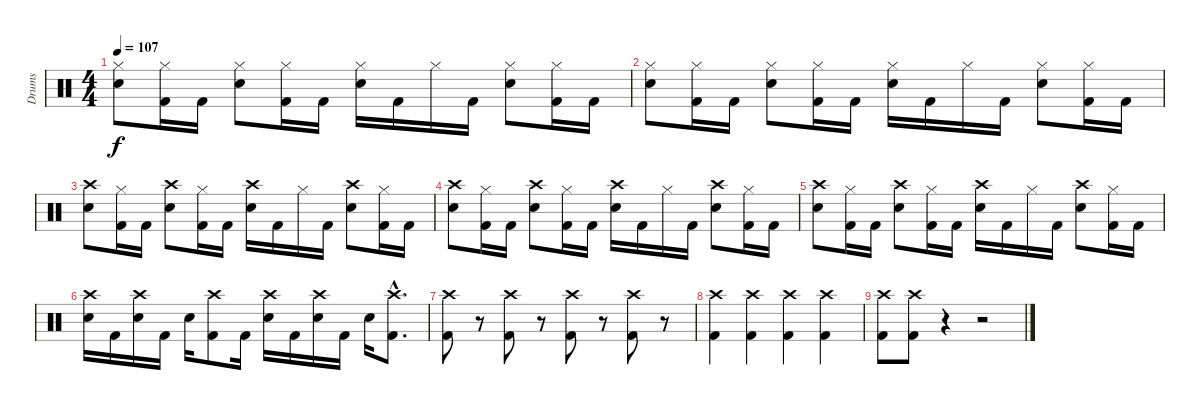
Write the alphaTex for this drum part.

\track ("Drums" "Drums") {instrument percussion}
\staff {score}
\articulation defaults
\ts (4 4)
\tempo 107
\clef neutral
\ks c
("Hi-Hat (closed)" "Electric Snare (hit)").8{dy f} ("Hi-Hat (closed)" "Kick (hit) 2").16 "Kick (hit) 2".16 ("Hi-Hat (closed)" "Electric Snare (hit)").8 ("Hi-Hat (closed)" "Kick (hit) 2").16 "Kick (hit) 2".16 ("Hi-Hat (closed)" "Electric Snare (hit)").16 "Kick (hit) 2".16 "Hi-Hat (closed)".16 "Kick (hit) 2".16 ("Hi-Hat (closed)" "Electric Snare (hit)").8 ("Hi-Hat (closed)" "Kick (hit) 2").16 "Kick (hit) 2".16 |
("Hi-Hat (closed)" "Electric Snare (hit)").8 ("Hi-Hat (closed)" "Kick (hit) 2").16 "Kick (hit) 2".16 ("Hi-Hat (closed)" "Electric Snare (hit)").8 ("Hi-Hat (closed)" "Kick (hit) 2").16 "Kick (hit) 2".16 ("Hi-Hat (closed)" "Electric Snare (hit)").16 "Kick (hit) 2".16 "Hi-Hat (closed)".16 "Kick (hit) 2".16 ("Hi-Hat (closed)" "Electric Snare (hit)").8 ("Hi-Hat (closed)" "Kick (hit) 2").16 "Kick (hit) 2".16 |
("Crash high (hit)" "Electric Snare (hit)").8 ("Hi-Hat (closed)" "Kick (hit) 2").16 "Kick (hit) 2".16 ("Crash high (hit)" "Electric Snare (hit)").8 ("Hi-Hat (closed)" "Kick (hit) 2").16 "Kick (hit) 2".16 ("Crash high (hit)" "Electric Snare (hit)").16 "Kick (hit) 2".16 "Hi-Hat (closed)".16 "Kick (hit) 2".16 ("Crash high (hit)" "Electric Snare (hit)").8 ("Hi-Hat (closed)" "Kick (hit) 2").16 "Kick (hit) 2".16 |
("Crash high (hit)" "Electric Snare (hit)").8 ("Hi-Hat (closed)" "Kick (hit) 2").16 "Kick (hit) 2".16 ("Crash high (hit)" "Electric Snare (hit)").8 ("Hi-Hat (closed)" "Kick (hit) 2").16 "Kick (hit) 2".16 ("Crash high (hit)" "Electric Snare (hit)").16 "Kick (hit) 2".16 "Hi-Hat (closed)".16 "Kick (hit) 2".16 ("Crash high (hit)" "Electric Snare (hit)").8 ("Hi-Hat (closed)" "Kick (hit) 2").16 "Kick (hit) 2".16 |
("Crash high (hit)" "Electric Snare (hit)").8 ("Hi-Hat (closed)" "Kick (hit) 2").16 "Kick (hit) 2".16 ("Crash high (hit)" "Electric Snare (hit)").8 ("Hi-Hat (closed)" "Kick (hit) 2").16 "Kick (hit) 2".16 ("Crash high (hit)" "Electric Snare (hit)").16 "Kick (hit) 2".16 "Hi-Hat (closed)".16 "Kick (hit) 2".16 ("Crash high (hit)" "Electric Snare (hit)").8 ("Hi-Hat (closed)" "Kick (hit) 2").16 "Kick (hit) 2".16 |
("Crash high (hit)" "Electric Snare (hit)").16 "Kick (hit) 2".16 ("Crash high (hit)" "Electric Snare (hit)").16 "Kick (hit) 2".16 "Electric Snare (hit)".16 ("Crash high (hit)" "Kick (hit) 2").8 "Kick (hit) 2".16 ("Crash high (hit)" "Electric Snare (hit)").16 "Kick (hit) 2".16 ("Crash high (hit)" "Electric Snare (hit)").16 "Kick (hit) 2".16 "Electric Snare (hit)".16 ("Crash high (hit)"{hac} "Kick (hit) 2"{hac}).8{d} |
("Crash high (hit)" "Kick (hit) 2").8 r.8 ("Crash high (hit)" "Kick (hit) 2").8 r.8 ("Crash high (hit)" "Kick (hit) 2").8 r.8 ("Crash high (hit)" "Kick (hit) 2").8 r.8 |
("Crash high (hit)" "Kick (hit) 2").4 ("Crash high (hit)" "Kick (hit) 2").4 ("Crash high (hit)" "Kick (hit) 2").4 ("Crash high (hit)" "Kick (hit) 2").4 |
("Crash high (hit)" "Kick (hit) 2").8 ("Crash high (hit)" "Kick (hit) 2").8 r.4 r.2
